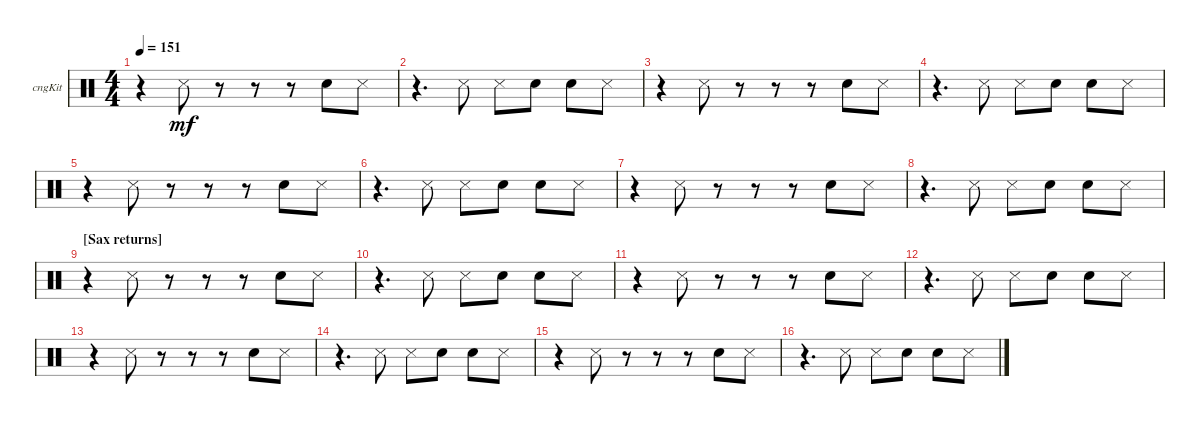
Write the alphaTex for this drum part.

\bracketExtendMode groupsimilarinstruments
\firstSystemTrackNameOrientation horizontal
\otherSystemsTrackNameOrientation horizontal
\track ("Congas" "cngKit") {instrument percussion}
\staff {score}
\articulation defaults
\ts (4 4)
\tempo 151
\clef neutral
\ks aminor
r.4{dy mf} "Snare (side stick) 3".8 r.8 r.8 r.8 "Snare (hit) 2".8 "Snare (side stick) 3".8 |
r.4{d} "Snare (side stick) 3".8 "Snare (side stick) 3".8 "Snare (hit) 2".8 "Snare (hit) 2".8 "Snare (side stick) 3".8 |
r.4 "Snare (side stick) 3".8 r.8 r.8 r.8 "Snare (hit) 2".8 "Snare (side stick) 3".8 |
r.4{d} "Snare (side stick) 3".8 "Snare (side stick) 3".8 "Snare (hit) 2".8 "Snare (hit) 2".8 "Snare (side stick) 3".8 |
r.4 "Snare (side stick) 3".8 r.8 r.8 r.8 "Snare (hit) 2".8 "Snare (side stick) 3".8 |
r.4{d} "Snare (side stick) 3".8 "Snare (side stick) 3".8 "Snare (hit) 2".8 "Snare (hit) 2".8 "Snare (side stick) 3".8 |
r.4 "Snare (side stick) 3".8 r.8 r.8 r.8 "Snare (hit) 2".8 "Snare (side stick) 3".8 |
r.4{d} "Snare (side stick) 3".8 "Snare (side stick) 3".8 "Snare (hit) 2".8 "Snare (hit) 2".8 "Snare (side stick) 3".8 |
\section ("" "[Sax returns]")
r.4 "Snare (side stick) 3".8 r.8 r.8 r.8 "Snare (hit) 2".8 "Snare (side stick) 3".8 |
r.4{d} "Snare (side stick) 3".8 "Snare (side stick) 3".8 "Snare (hit) 2".8 "Snare (hit) 2".8 "Snare (side stick) 3".8 |
r.4 "Snare (side stick) 3".8 r.8 r.8 r.8 "Snare (hit) 2".8 "Snare (side stick) 3".8 |
r.4{d} "Snare (side stick) 3".8 "Snare (side stick) 3".8 "Snare (hit) 2".8 "Snare (hit) 2".8 "Snare (side stick) 3".8 |
r.4 "Snare (side stick) 3".8 r.8 r.8 r.8 "Snare (hit) 2".8 "Snare (side stick) 3".8 |
r.4{d} "Snare (side stick) 3".8 "Snare (side stick) 3".8 "Snare (hit) 2".8 "Snare (hit) 2".8 "Snare (side stick) 3".8 |
r.4 "Snare (side stick) 3".8 r.8 r.8 r.8 "Snare (hit) 2".8 "Snare (side stick) 3".8 |
r.4{d} "Snare (side stick) 3".8 "Snare (side stick) 3".8 "Snare (hit) 2".8 "Snare (hit) 2".8 "Snare (side stick) 3".8
